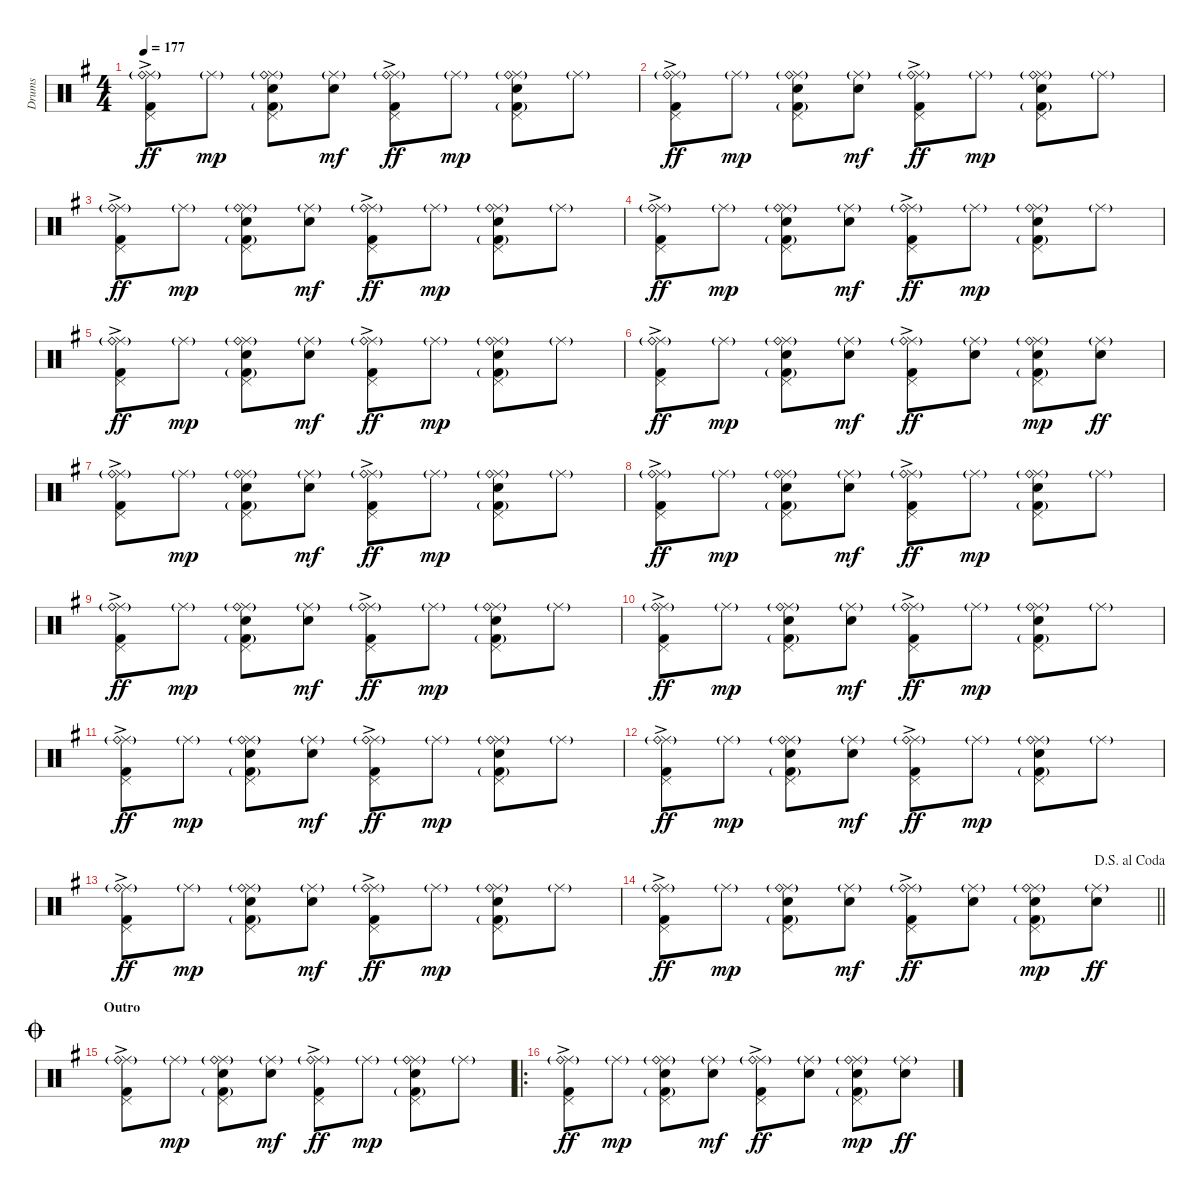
\track ("Drums" "Drums") {instrument percussion}
\staff {score}
\articulation defaults
\ts (4 4)
\tempo 177
\clef neutral
\ks g
("Ride (middle)" "Ride (bell)"{g} "Pedal Hi-Hat (hit)" "Kick (hit) 2"{ac}).8{dy ff} "Ride (middle)"{g}.8{dy mp} ("Ride (middle)" "Ride (bell)"{g} "Electric Snare (hit)" "Pedal Hi-Hat (hit)" "Kick (hit) 2"{g}).8 ("Ride (middle)"{g} "Electric Snare (hit)").8{dy mf} ("Ride (middle)" "Ride (bell)"{g} "Pedal Hi-Hat (hit)" "Kick (hit) 2"{ac}).8{dy ff} "Ride (middle)"{g}.8{dy mp} ("Ride (middle)" "Ride (bell)"{g} "Electric Snare (hit)" "Pedal Hi-Hat (hit)" "Kick (hit) 2"{g}).8 "Ride (middle)"{g}.8 |
("Ride (middle)" "Ride (bell)"{g} "Pedal Hi-Hat (hit)" "Kick (hit) 2"{ac}).8{dy ff} "Ride (middle)"{g}.8{dy mp} ("Ride (middle)" "Ride (bell)"{g} "Electric Snare (hit)" "Pedal Hi-Hat (hit)" "Kick (hit) 2"{g}).8 ("Ride (middle)"{g} "Electric Snare (hit)").8{dy mf} ("Ride (middle)" "Ride (bell)"{g} "Pedal Hi-Hat (hit)" "Kick (hit) 2"{ac}).8{dy ff} "Ride (middle)"{g}.8{dy mp} ("Ride (middle)" "Ride (bell)"{g} "Electric Snare (hit)" "Pedal Hi-Hat (hit)" "Kick (hit) 2"{g}).8 "Ride (middle)"{g}.8 |
("Ride (middle)" "Ride (bell)"{g} "Pedal Hi-Hat (hit)" "Kick (hit) 2"{ac}).8{dy ff} "Ride (middle)"{g}.8{dy mp} ("Ride (middle)" "Ride (bell)"{g} "Electric Snare (hit)" "Pedal Hi-Hat (hit)" "Kick (hit) 2"{g}).8 ("Ride (middle)"{g} "Electric Snare (hit)").8{dy mf} ("Ride (middle)" "Ride (bell)"{g} "Pedal Hi-Hat (hit)" "Kick (hit) 2"{ac}).8{dy ff} "Ride (middle)"{g}.8{dy mp} ("Ride (middle)" "Ride (bell)"{g} "Electric Snare (hit)" "Pedal Hi-Hat (hit)" "Kick (hit) 2"{g}).8 "Ride (middle)"{g}.8 |
("Ride (middle)" "Ride (bell)"{g} "Pedal Hi-Hat (hit)" "Kick (hit) 2"{ac}).8{dy ff} "Ride (middle)"{g}.8{dy mp} ("Ride (middle)" "Ride (bell)"{g} "Electric Snare (hit)" "Pedal Hi-Hat (hit)" "Kick (hit) 2"{g}).8 ("Ride (middle)"{g} "Electric Snare (hit)").8{dy mf} ("Ride (middle)" "Ride (bell)"{g} "Pedal Hi-Hat (hit)" "Kick (hit) 2"{ac}).8{dy ff} "Ride (middle)"{g}.8{dy mp} ("Ride (middle)" "Ride (bell)"{g} "Electric Snare (hit)" "Pedal Hi-Hat (hit)" "Kick (hit) 2"{g}).8 "Ride (middle)"{g}.8 |
("Ride (middle)" "Ride (bell)"{g} "Pedal Hi-Hat (hit)" "Kick (hit) 2"{ac}).8{dy ff} "Ride (middle)"{g}.8{dy mp} ("Ride (middle)" "Ride (bell)"{g} "Electric Snare (hit)" "Pedal Hi-Hat (hit)" "Kick (hit) 2"{g}).8 ("Ride (middle)"{g} "Electric Snare (hit)").8{dy mf} ("Ride (middle)" "Ride (bell)"{g} "Pedal Hi-Hat (hit)" "Kick (hit) 2"{ac}).8{dy ff} "Ride (middle)"{g}.8{dy mp} ("Ride (middle)" "Ride (bell)"{g} "Electric Snare (hit)" "Pedal Hi-Hat (hit)" "Kick (hit) 2"{g}).8 "Ride (middle)"{g}.8 |
("Ride (middle)" "Ride (bell)"{g} "Pedal Hi-Hat (hit)" "Kick (hit) 2"{ac}).8{dy ff} "Ride (middle)"{g}.8{dy mp} ("Ride (middle)" "Ride (bell)"{g} "Electric Snare (hit)" "Pedal Hi-Hat (hit)" "Kick (hit) 2"{g}).8 ("Ride (middle)"{g} "Electric Snare (hit)").8{dy mf} ("Ride (middle)" "Ride (bell)"{g} "Pedal Hi-Hat (hit)" "Kick (hit) 2"{ac}).8{dy ff} ("Ride (middle)"{g} "Electric Snare (hit)").8 ("Ride (middle)" "Ride (bell)"{g} "Electric Snare (hit)" "Pedal Hi-Hat (hit)" "Kick (hit) 2"{g}).8{dy mp} ("Ride (middle)"{g} "Electric Snare (hit)").8{dy ff} |
("Ride (middle)" "Ride (bell)"{g} "Pedal Hi-Hat (hit)" "Kick (hit) 2"{ac}).8 "Ride (middle)"{g}.8{dy mp} ("Ride (middle)" "Ride (bell)"{g} "Electric Snare (hit)" "Pedal Hi-Hat (hit)" "Kick (hit) 2"{g}).8 ("Ride (middle)"{g} "Electric Snare (hit)").8{dy mf} ("Ride (middle)" "Ride (bell)"{g} "Pedal Hi-Hat (hit)" "Kick (hit) 2"{ac}).8{dy ff} "Ride (middle)"{g}.8{dy mp} ("Ride (middle)" "Ride (bell)"{g} "Electric Snare (hit)" "Pedal Hi-Hat (hit)" "Kick (hit) 2"{g}).8 "Ride (middle)"{g}.8 |
("Ride (middle)" "Ride (bell)"{g} "Pedal Hi-Hat (hit)" "Kick (hit) 2"{ac}).8{dy ff} "Ride (middle)"{g}.8{dy mp} ("Ride (middle)" "Ride (bell)"{g} "Electric Snare (hit)" "Pedal Hi-Hat (hit)" "Kick (hit) 2"{g}).8 ("Ride (middle)"{g} "Electric Snare (hit)").8{dy mf} ("Ride (middle)" "Ride (bell)"{g} "Pedal Hi-Hat (hit)" "Kick (hit) 2"{ac}).8{dy ff} "Ride (middle)"{g}.8{dy mp} ("Ride (middle)" "Ride (bell)"{g} "Electric Snare (hit)" "Pedal Hi-Hat (hit)" "Kick (hit) 2"{g}).8 "Ride (middle)"{g}.8 |
("Ride (middle)" "Ride (bell)"{g} "Pedal Hi-Hat (hit)" "Kick (hit) 2"{ac}).8{dy ff} "Ride (middle)"{g}.8{dy mp} ("Ride (middle)" "Ride (bell)"{g} "Electric Snare (hit)" "Pedal Hi-Hat (hit)" "Kick (hit) 2"{g}).8 ("Ride (middle)"{g} "Electric Snare (hit)").8{dy mf} ("Ride (middle)" "Ride (bell)"{g} "Pedal Hi-Hat (hit)" "Kick (hit) 2"{ac}).8{dy ff} "Ride (middle)"{g}.8{dy mp} ("Ride (middle)" "Ride (bell)"{g} "Electric Snare (hit)" "Pedal Hi-Hat (hit)" "Kick (hit) 2"{g}).8 "Ride (middle)"{g}.8 |
("Ride (middle)" "Ride (bell)"{g} "Pedal Hi-Hat (hit)" "Kick (hit) 2"{ac}).8{dy ff} "Ride (middle)"{g}.8{dy mp} ("Ride (middle)" "Ride (bell)"{g} "Electric Snare (hit)" "Pedal Hi-Hat (hit)" "Kick (hit) 2"{g}).8 ("Ride (middle)"{g} "Electric Snare (hit)").8{dy mf} ("Ride (middle)" "Ride (bell)"{g} "Pedal Hi-Hat (hit)" "Kick (hit) 2"{ac}).8{dy ff} "Ride (middle)"{g}.8{dy mp} ("Ride (middle)" "Ride (bell)"{g} "Electric Snare (hit)" "Pedal Hi-Hat (hit)" "Kick (hit) 2"{g}).8 "Ride (middle)"{g}.8 |
("Ride (middle)" "Ride (bell)"{g} "Pedal Hi-Hat (hit)" "Kick (hit) 2"{ac}).8{dy ff} "Ride (middle)"{g}.8{dy mp} ("Ride (middle)" "Ride (bell)"{g} "Electric Snare (hit)" "Pedal Hi-Hat (hit)" "Kick (hit) 2"{g}).8 ("Ride (middle)"{g} "Electric Snare (hit)").8{dy mf} ("Ride (middle)" "Ride (bell)"{g} "Pedal Hi-Hat (hit)" "Kick (hit) 2"{ac}).8{dy ff} "Ride (middle)"{g}.8{dy mp} ("Ride (middle)" "Ride (bell)"{g} "Electric Snare (hit)" "Pedal Hi-Hat (hit)" "Kick (hit) 2"{g}).8 "Ride (middle)"{g}.8 |
("Ride (middle)" "Ride (bell)"{g} "Pedal Hi-Hat (hit)" "Kick (hit) 2"{ac}).8{dy ff} "Ride (middle)"{g}.8{dy mp} ("Ride (middle)" "Ride (bell)"{g} "Electric Snare (hit)" "Pedal Hi-Hat (hit)" "Kick (hit) 2"{g}).8 ("Ride (middle)"{g} "Electric Snare (hit)").8{dy mf} ("Ride (middle)" "Ride (bell)"{g} "Pedal Hi-Hat (hit)" "Kick (hit) 2"{ac}).8{dy ff} "Ride (middle)"{g}.8{dy mp} ("Ride (middle)" "Ride (bell)"{g} "Electric Snare (hit)" "Pedal Hi-Hat (hit)" "Kick (hit) 2"{g}).8 "Ride (middle)"{g}.8 |
("Ride (middle)" "Ride (bell)"{g} "Pedal Hi-Hat (hit)" "Kick (hit) 2"{ac}).8{dy ff} "Ride (middle)"{g}.8{dy mp} ("Ride (middle)" "Ride (bell)"{g} "Electric Snare (hit)" "Pedal Hi-Hat (hit)" "Kick (hit) 2"{g}).8 ("Ride (middle)"{g} "Electric Snare (hit)").8{dy mf} ("Ride (middle)" "Ride (bell)"{g} "Pedal Hi-Hat (hit)" "Kick (hit) 2"{ac}).8{dy ff} "Ride (middle)"{g}.8{dy mp} ("Ride (middle)" "Ride (bell)"{g} "Electric Snare (hit)" "Pedal Hi-Hat (hit)" "Kick (hit) 2"{g}).8 "Ride (middle)"{g}.8 |
\jump dalsegnoalcoda
\barLineRight lightlight
("Ride (middle)" "Ride (bell)"{g} "Pedal Hi-Hat (hit)" "Kick (hit) 2"{ac}).8{dy ff} "Ride (middle)"{g}.8{dy mp} ("Ride (middle)" "Ride (bell)"{g} "Electric Snare (hit)" "Pedal Hi-Hat (hit)" "Kick (hit) 2"{g}).8 ("Ride (middle)"{g} "Electric Snare (hit)").8{dy mf} ("Ride (middle)" "Ride (bell)"{g} "Pedal Hi-Hat (hit)" "Kick (hit) 2"{ac}).8{dy ff} ("Ride (middle)"{g} "Electric Snare (hit)").8 ("Ride (middle)" "Ride (bell)"{g} "Electric Snare (hit)" "Pedal Hi-Hat (hit)" "Kick (hit) 2"{g}).8{dy mp} ("Ride (middle)"{g} "Electric Snare (hit)").8{dy ff} |
\section ("" "Outro")
\jump coda
("Ride (middle)" "Ride (bell)"{g} "Pedal Hi-Hat (hit)" "Kick (hit) 2"{ac}).8 "Ride (middle)"{g}.8{dy mp} ("Ride (middle)" "Ride (bell)"{g} "Electric Snare (hit)" "Pedal Hi-Hat (hit)" "Kick (hit) 2"{g}).8 ("Ride (middle)"{g} "Electric Snare (hit)").8{dy mf} ("Ride (middle)" "Ride (bell)"{g} "Pedal Hi-Hat (hit)" "Kick (hit) 2"{ac}).8{dy ff} "Ride (middle)"{g}.8{dy mp} ("Ride (middle)" "Ride (bell)"{g} "Electric Snare (hit)" "Pedal Hi-Hat (hit)" "Kick (hit) 2"{g}).8 "Ride (middle)"{g}.8 |
\ro
("Ride (middle)" "Ride (bell)"{g} "Pedal Hi-Hat (hit)" "Kick (hit) 2"{ac}).8{dy ff} "Ride (middle)"{g}.8{dy mp} ("Ride (middle)" "Ride (bell)"{g} "Electric Snare (hit)" "Pedal Hi-Hat (hit)" "Kick (hit) 2"{g}).8 ("Ride (middle)"{g} "Electric Snare (hit)").8{dy mf} ("Ride (middle)" "Ride (bell)"{g} "Pedal Hi-Hat (hit)" "Kick (hit) 2"{ac}).8{dy ff} ("Ride (middle)"{g} "Electric Snare (hit)").8 ("Ride (middle)" "Ride (bell)"{g} "Electric Snare (hit)" "Pedal Hi-Hat (hit)" "Kick (hit) 2"{g}).8{dy mp} ("Ride (middle)"{g} "Electric Snare (hit)").8{dy ff}
